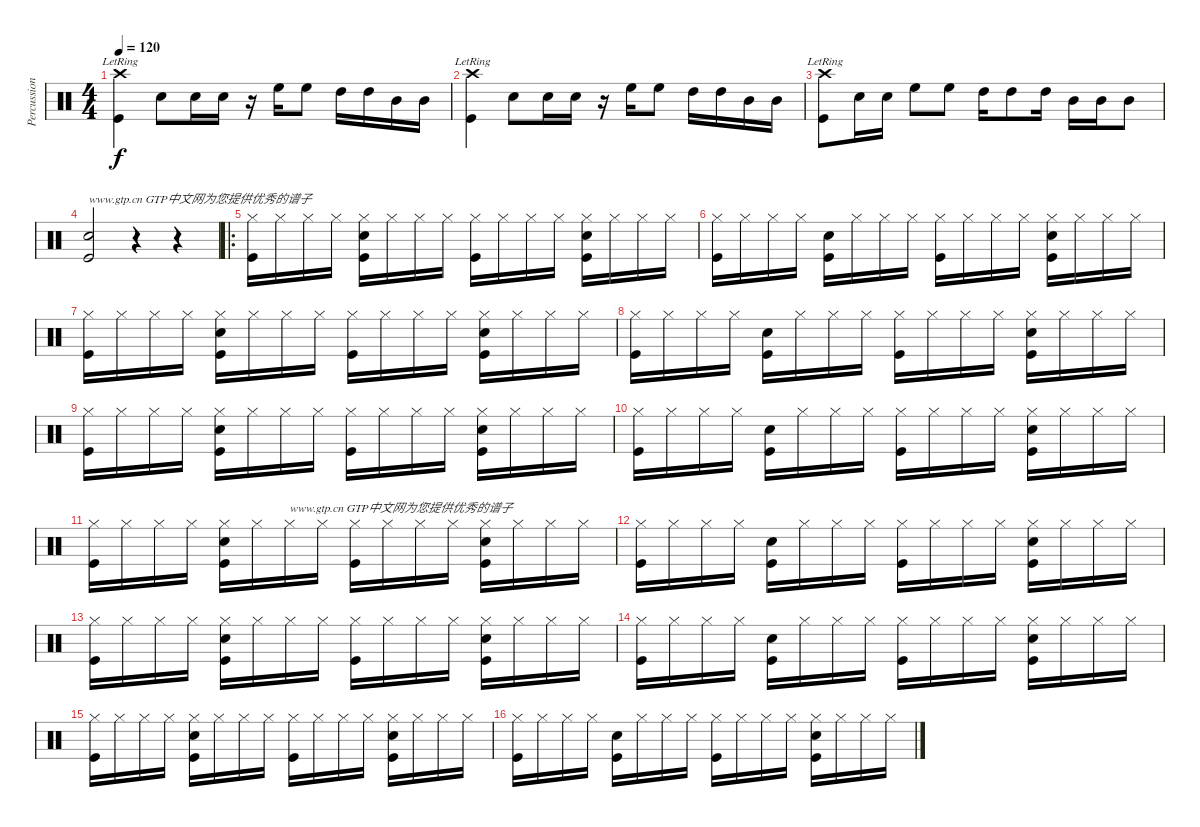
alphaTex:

\track ("Percussion" "Percussion") {instrument percussion}
\staff {score}
\articulation defaults
\ts (4 4)
\tempo 120
\clef neutral
\ks c
("Crash high (hit)"{lr} "Kick (hit)").4{dy f} "Snare (hit) 2".8 "Snare (hit) 2".16 "Snare (hit) 2".16 r.16 "High Floor Tom (hit)".16 "High Floor Tom (hit)".8 "High Tom (hit)".16 "High Tom (hit)".16 "Mid Tom (hit)".16 "Mid Tom (hit)".16 |
("Crash high (hit)"{lr} "Kick (hit)").4 "Snare (hit) 2".8 "Snare (hit) 2".16 "Snare (hit) 2".16 r.16 "High Floor Tom (hit)".16 "High Floor Tom (hit)".8 "High Tom (hit)".16 "High Tom (hit)".16 "Mid Tom (hit)".16 "Mid Tom (hit)".16 |
("Crash high (hit)"{lr} "Kick (hit)").8 "Snare (hit) 2".16 "Snare (hit) 2".16 "High Floor Tom (hit)".8 "High Floor Tom (hit)".8 "High Tom (hit)".16 "High Tom (hit)".8 "High Tom (hit)".16 "Mid Tom (hit)".16 "Mid Tom (hit)".16 "Mid Tom (hit)".8 |
("Snare (hit) 2" "Kick (hit)").2{txt "www.gtp.cn GTP中文网为您提供优秀的谱子"} r.4 r.4 |
\ro
("Hi-Hat (closed)" "Kick (hit)").16 "Hi-Hat (closed)".16 "Hi-Hat (closed)".16 "Hi-Hat (closed)".16 ("Hi-Hat (closed)" "Snare (hit) 2" "Kick (hit)").16 "Hi-Hat (closed)".16 "Hi-Hat (closed)".16 "Hi-Hat (closed)".16 ("Hi-Hat (closed)" "Kick (hit)").16 "Hi-Hat (closed)".16 "Hi-Hat (closed)".16 "Hi-Hat (closed)".16 ("Hi-Hat (closed)" "Snare (hit) 2" "Kick (hit)").16 "Hi-Hat (closed)".16 "Hi-Hat (closed)".16 "Hi-Hat (closed)".16 |
("Hi-Hat (closed)" "Kick (hit)").16 "Hi-Hat (closed)".16 "Hi-Hat (closed)".16 "Hi-Hat (closed)".16 ("Snare (hit) 2" "Kick (hit)").16 "Hi-Hat (closed)".16 "Hi-Hat (closed)".16 "Hi-Hat (closed)".16 ("Hi-Hat (closed)" "Kick (hit)").16 "Hi-Hat (closed)".16 "Hi-Hat (closed)".16 "Hi-Hat (closed)".16 ("Hi-Hat (closed)" "Snare (hit) 2" "Kick (hit)").16 "Hi-Hat (closed)".16 "Hi-Hat (closed)".16 "Hi-Hat (closed)".16 |
("Hi-Hat (closed)" "Kick (hit)").16 "Hi-Hat (closed)".16 "Hi-Hat (closed)".16 "Hi-Hat (closed)".16 ("Hi-Hat (closed)" "Snare (hit) 2" "Kick (hit)").16 "Hi-Hat (closed)".16 "Hi-Hat (closed)".16 "Hi-Hat (closed)".16 ("Hi-Hat (closed)" "Kick (hit)").16 "Hi-Hat (closed)".16 "Hi-Hat (closed)".16 "Hi-Hat (closed)".16 ("Hi-Hat (closed)" "Snare (hit) 2" "Kick (hit)").16 "Hi-Hat (closed)".16 "Hi-Hat (closed)".16 "Hi-Hat (closed)".16 |
("Hi-Hat (closed)" "Kick (hit)").16 "Hi-Hat (closed)".16 "Hi-Hat (closed)".16 "Hi-Hat (closed)".16 ("Snare (hit) 2" "Kick (hit)").16 "Hi-Hat (closed)".16 "Hi-Hat (closed)".16 "Hi-Hat (closed)".16 ("Hi-Hat (closed)" "Kick (hit)").16 "Hi-Hat (closed)".16 "Hi-Hat (closed)".16 "Hi-Hat (closed)".16 ("Hi-Hat (closed)" "Snare (hit) 2" "Kick (hit)").16 "Hi-Hat (closed)".16 "Hi-Hat (closed)".16 "Hi-Hat (closed)".16 |
("Hi-Hat (closed)" "Kick (hit)").16 "Hi-Hat (closed)".16 "Hi-Hat (closed)".16 "Hi-Hat (closed)".16 ("Hi-Hat (closed)" "Snare (hit) 2" "Kick (hit)").16 "Hi-Hat (closed)".16 "Hi-Hat (closed)".16 "Hi-Hat (closed)".16 ("Hi-Hat (closed)" "Kick (hit)").16 "Hi-Hat (closed)".16 "Hi-Hat (closed)".16 "Hi-Hat (closed)".16 ("Hi-Hat (closed)" "Snare (hit) 2" "Kick (hit)").16 "Hi-Hat (closed)".16 "Hi-Hat (closed)".16 "Hi-Hat (closed)".16 |
("Hi-Hat (closed)" "Kick (hit)").16 "Hi-Hat (closed)".16 "Hi-Hat (closed)".16 "Hi-Hat (closed)".16 ("Snare (hit) 2" "Kick (hit)").16 "Hi-Hat (closed)".16 "Hi-Hat (closed)".16 "Hi-Hat (closed)".16 ("Hi-Hat (closed)" "Kick (hit)").16 "Hi-Hat (closed)".16 "Hi-Hat (closed)".16 "Hi-Hat (closed)".16 ("Hi-Hat (closed)" "Snare (hit) 2" "Kick (hit)").16 "Hi-Hat (closed)".16 "Hi-Hat (closed)".16 "Hi-Hat (closed)".16 |
("Hi-Hat (closed)" "Kick (hit)").16 "Hi-Hat (closed)".16 "Hi-Hat (closed)".16 "Hi-Hat (closed)".16 ("Hi-Hat (closed)" "Snare (hit) 2" "Kick (hit)").16 "Hi-Hat (closed)".16 "Hi-Hat (closed)".16{txt "www.gtp.cn GTP中文网为您提供优秀的谱子"} "Hi-Hat (closed)".16 ("Hi-Hat (closed)" "Kick (hit)").16 "Hi-Hat (closed)".16 "Hi-Hat (closed)".16 "Hi-Hat (closed)".16 ("Hi-Hat (closed)" "Snare (hit) 2" "Kick (hit)").16 "Hi-Hat (closed)".16 "Hi-Hat (closed)".16 "Hi-Hat (closed)".16 |
("Hi-Hat (closed)" "Kick (hit)").16 "Hi-Hat (closed)".16 "Hi-Hat (closed)".16 "Hi-Hat (closed)".16 ("Snare (hit) 2" "Kick (hit)").16 "Hi-Hat (closed)".16 "Hi-Hat (closed)".16 "Hi-Hat (closed)".16 ("Hi-Hat (closed)" "Kick (hit)").16 "Hi-Hat (closed)".16 "Hi-Hat (closed)".16 "Hi-Hat (closed)".16 ("Hi-Hat (closed)" "Snare (hit) 2" "Kick (hit)").16 "Hi-Hat (closed)".16 "Hi-Hat (closed)".16 "Hi-Hat (closed)".16 |
("Hi-Hat (closed)" "Kick (hit)").16 "Hi-Hat (closed)".16 "Hi-Hat (closed)".16 "Hi-Hat (closed)".16 ("Hi-Hat (closed)" "Snare (hit) 2" "Kick (hit)").16 "Hi-Hat (closed)".16 "Hi-Hat (closed)".16 "Hi-Hat (closed)".16 ("Hi-Hat (closed)" "Kick (hit)").16 "Hi-Hat (closed)".16 "Hi-Hat (closed)".16 "Hi-Hat (closed)".16 ("Hi-Hat (closed)" "Snare (hit) 2" "Kick (hit)").16 "Hi-Hat (closed)".16 "Hi-Hat (closed)".16 "Hi-Hat (closed)".16 |
("Hi-Hat (closed)" "Kick (hit)").16 "Hi-Hat (closed)".16 "Hi-Hat (closed)".16 "Hi-Hat (closed)".16 ("Snare (hit) 2" "Kick (hit)").16 "Hi-Hat (closed)".16 "Hi-Hat (closed)".16 "Hi-Hat (closed)".16 ("Hi-Hat (closed)" "Kick (hit)").16 "Hi-Hat (closed)".16 "Hi-Hat (closed)".16 "Hi-Hat (closed)".16 ("Hi-Hat (closed)" "Snare (hit) 2" "Kick (hit)").16 "Hi-Hat (closed)".16 "Hi-Hat (closed)".16 "Hi-Hat (closed)".16 |
("Hi-Hat (closed)" "Kick (hit)").16 "Hi-Hat (closed)".16 "Hi-Hat (closed)".16 "Hi-Hat (closed)".16 ("Hi-Hat (closed)" "Snare (hit) 2" "Kick (hit)").16 "Hi-Hat (closed)".16 "Hi-Hat (closed)".16 "Hi-Hat (closed)".16 ("Hi-Hat (closed)" "Kick (hit)").16 "Hi-Hat (closed)".16 "Hi-Hat (closed)".16 "Hi-Hat (closed)".16 ("Hi-Hat (closed)" "Snare (hit) 2" "Kick (hit)").16 "Hi-Hat (closed)".16 "Hi-Hat (closed)".16 "Hi-Hat (closed)".16 |
("Hi-Hat (closed)" "Kick (hit)").16 "Hi-Hat (closed)".16 "Hi-Hat (closed)".16 "Hi-Hat (closed)".16 ("Snare (hit) 2" "Kick (hit)").16 "Hi-Hat (closed)".16 "Hi-Hat (closed)".16 "Hi-Hat (closed)".16 ("Hi-Hat (closed)" "Kick (hit)").16 "Hi-Hat (closed)".16 "Hi-Hat (closed)".16 "Hi-Hat (closed)".16 ("Hi-Hat (closed)" "Snare (hit) 2" "Kick (hit)").16 "Hi-Hat (closed)".16 "Hi-Hat (closed)".16 "Hi-Hat (closed)".16
